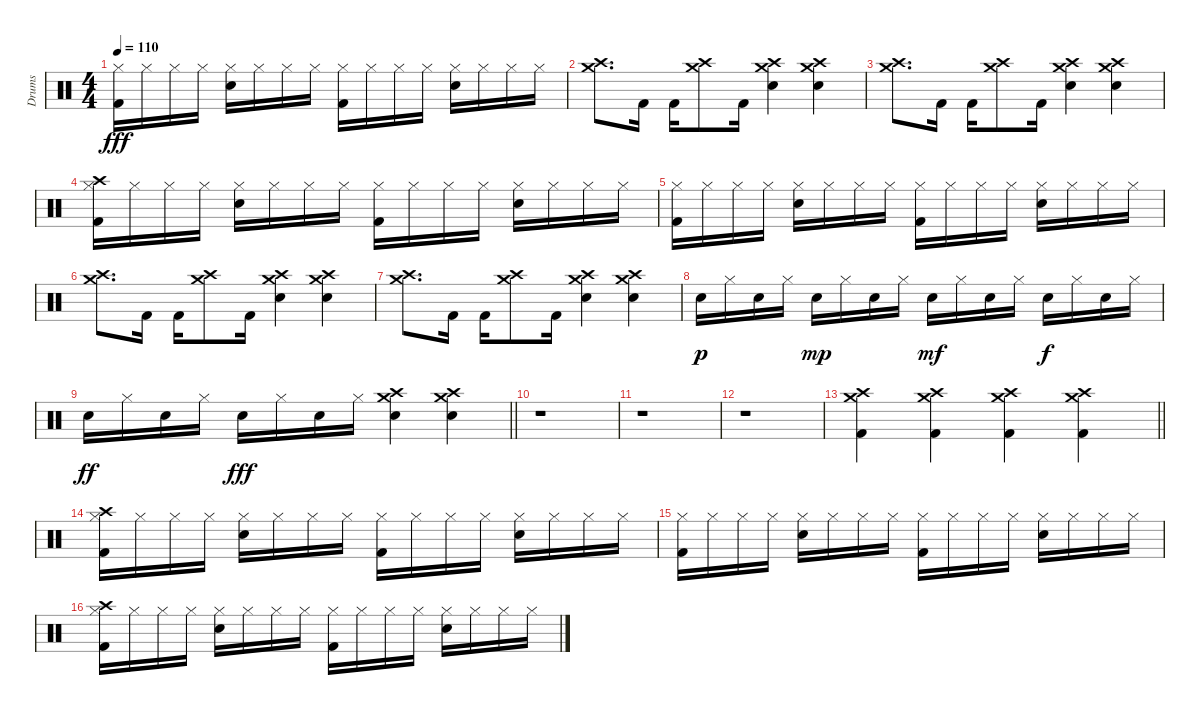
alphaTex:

\track ("Drums" "Drums") {instrument percussion}
\staff {score}
\articulation defaults
\ts (4 4)
\tempo 110
\clef neutral
\ks c
("Hi-Hat (closed)" "Kick (hit) 2").16{dy fff} "Hi-Hat (closed)".16 "Hi-Hat (closed)".16 "Hi-Hat (closed)".16 ("Hi-Hat (closed)" "Electric Snare (hit)").16 "Hi-Hat (closed)".16 "Hi-Hat (closed)".16 "Hi-Hat (closed)".16 ("Hi-Hat (closed)" "Kick (hit) 2").16 "Hi-Hat (closed)".16 "Hi-Hat (closed)".16 "Hi-Hat (closed)".16 ("Hi-Hat (closed)" "Electric Snare (hit)").16 "Hi-Hat (closed)".16 "Hi-Hat (closed)".16 "Hi-Hat (closed)".16 |
("Crash high (hit)" "Crash medium (hit)").8{d} "Kick (hit) 2".16 "Kick (hit) 2".16 ("Crash high (hit)" "Crash medium (hit)").8 "Kick (hit) 2".16 ("Crash high (hit)" "Crash medium (hit)" "Electric Snare (hit)").4 ("Crash high (hit)" "Crash medium (hit)" "Electric Snare (hit)").4 |
("Crash high (hit)" "Crash medium (hit)").8{d} "Kick (hit) 2".16 "Kick (hit) 2".16 ("Crash high (hit)" "Crash medium (hit)").8 "Kick (hit) 2".16 ("Crash high (hit)" "Crash medium (hit)" "Electric Snare (hit)").4 ("Crash high (hit)" "Crash medium (hit)" "Electric Snare (hit)").4 |
("Crash high (hit)" "Hi-Hat (closed)" "Kick (hit) 2").16 "Hi-Hat (closed)".16 "Hi-Hat (closed)".16 "Hi-Hat (closed)".16 ("Hi-Hat (closed)" "Electric Snare (hit)").16 "Hi-Hat (closed)".16 "Hi-Hat (closed)".16 "Hi-Hat (closed)".16 ("Hi-Hat (closed)" "Kick (hit) 2").16 "Hi-Hat (closed)".16 "Hi-Hat (closed)".16 "Hi-Hat (closed)".16 ("Hi-Hat (closed)" "Electric Snare (hit)").16 "Hi-Hat (closed)".16 "Hi-Hat (closed)".16 "Hi-Hat (closed)".16 |
("Hi-Hat (closed)" "Kick (hit) 2").16 "Hi-Hat (closed)".16 "Hi-Hat (closed)".16 "Hi-Hat (closed)".16 ("Hi-Hat (closed)" "Electric Snare (hit)").16 "Hi-Hat (closed)".16 "Hi-Hat (closed)".16 "Hi-Hat (closed)".16 ("Hi-Hat (closed)" "Kick (hit) 2").16 "Hi-Hat (closed)".16 "Hi-Hat (closed)".16 "Hi-Hat (closed)".16 ("Hi-Hat (closed)" "Electric Snare (hit)").16 "Hi-Hat (closed)".16 "Hi-Hat (closed)".16 "Hi-Hat (closed)".16 |
("Crash high (hit)" "Crash medium (hit)").8{d} "Kick (hit) 2".16 "Kick (hit) 2".16 ("Crash high (hit)" "Crash medium (hit)").8 "Kick (hit) 2".16 ("Crash high (hit)" "Crash medium (hit)" "Electric Snare (hit)").4 ("Crash high (hit)" "Crash medium (hit)" "Electric Snare (hit)").4 |
("Crash high (hit)" "Crash medium (hit)").8{d} "Kick (hit) 2".16 "Kick (hit) 2".16 ("Crash high (hit)" "Crash medium (hit)").8 "Kick (hit) 2".16 ("Crash high (hit)" "Crash medium (hit)" "Electric Snare (hit)").4 ("Crash high (hit)" "Crash medium (hit)" "Electric Snare (hit)").4 |
"Electric Snare (hit)".16{dy p} "Hi-Hat (closed)".16 "Electric Snare (hit)".16 "Hi-Hat (closed)".16 "Electric Snare (hit)".16{dy mp} "Hi-Hat (closed)".16 "Electric Snare (hit)".16 "Hi-Hat (closed)".16 "Electric Snare (hit)".16{dy mf} "Hi-Hat (closed)".16 "Electric Snare (hit)".16 "Hi-Hat (closed)".16 "Electric Snare (hit)".16{dy f} "Hi-Hat (closed)".16 "Electric Snare (hit)".16 "Hi-Hat (closed)".16 |
\barLineRight lightlight "Electric Snare (hit)".16{dy ff} "Hi-Hat (closed)".16 "Electric Snare (hit)".16 "Hi-Hat (closed)".16 "Electric Snare (hit)".16{dy fff} "Hi-Hat (closed)".16 "Electric Snare (hit)".16 "Hi-Hat (closed)".16
("Crash high (hit)" "Crash medium (hit)" "Electric Snare (hit)").4 ("Crash high (hit)" "Crash medium (hit)" "Electric Snare (hit)").4 |
r.1 |
r.1 |
r.1 |
\barLineRight lightlight
("Crash high (hit)" "Crash medium (hit)" "Kick (hit) 2").4 ("Crash high (hit)" "Crash medium (hit)" "Kick (hit) 2").4 ("Crash high (hit)" "Crash medium (hit)" "Kick (hit) 2").4 ("Crash high (hit)" "Crash medium (hit)" "Kick (hit) 2").4 |
("Crash high (hit)" "Hi-Hat (closed)" "Kick (hit) 2").16 "Hi-Hat (closed)".16 "Hi-Hat (closed)".16 "Hi-Hat (closed)".16 ("Hi-Hat (closed)" "Electric Snare (hit)").16 "Hi-Hat (closed)".16 "Hi-Hat (closed)".16 "Hi-Hat (closed)".16 ("Hi-Hat (closed)" "Kick (hit) 2").16 "Hi-Hat (closed)".16 "Hi-Hat (closed)".16 "Hi-Hat (closed)".16 ("Hi-Hat (closed)" "Electric Snare (hit)").16 "Hi-Hat (closed)".16 "Hi-Hat (closed)".16 "Hi-Hat (closed)".16 |
("Hi-Hat (closed)" "Kick (hit) 2").16 "Hi-Hat (closed)".16 "Hi-Hat (closed)".16 "Hi-Hat (closed)".16 ("Hi-Hat (closed)" "Electric Snare (hit)").16 "Hi-Hat (closed)".16 "Hi-Hat (closed)".16 "Hi-Hat (closed)".16 ("Hi-Hat (closed)" "Kick (hit) 2").16 "Hi-Hat (closed)".16 "Hi-Hat (closed)".16 "Hi-Hat (closed)".16 ("Hi-Hat (closed)" "Electric Snare (hit)").16 "Hi-Hat (closed)".16 "Hi-Hat (closed)".16 "Hi-Hat (closed)".16 |
("Crash high (hit)" "Hi-Hat (closed)" "Kick (hit) 2").16 "Hi-Hat (closed)".16 "Hi-Hat (closed)".16 "Hi-Hat (closed)".16 ("Hi-Hat (closed)" "Electric Snare (hit)").16 "Hi-Hat (closed)".16 "Hi-Hat (closed)".16 "Hi-Hat (closed)".16 ("Hi-Hat (closed)" "Kick (hit) 2").16 "Hi-Hat (closed)".16 "Hi-Hat (closed)".16 "Hi-Hat (closed)".16 ("Hi-Hat (closed)" "Electric Snare (hit)").16 "Hi-Hat (closed)".16 "Hi-Hat (closed)".16 "Hi-Hat (closed)".16
